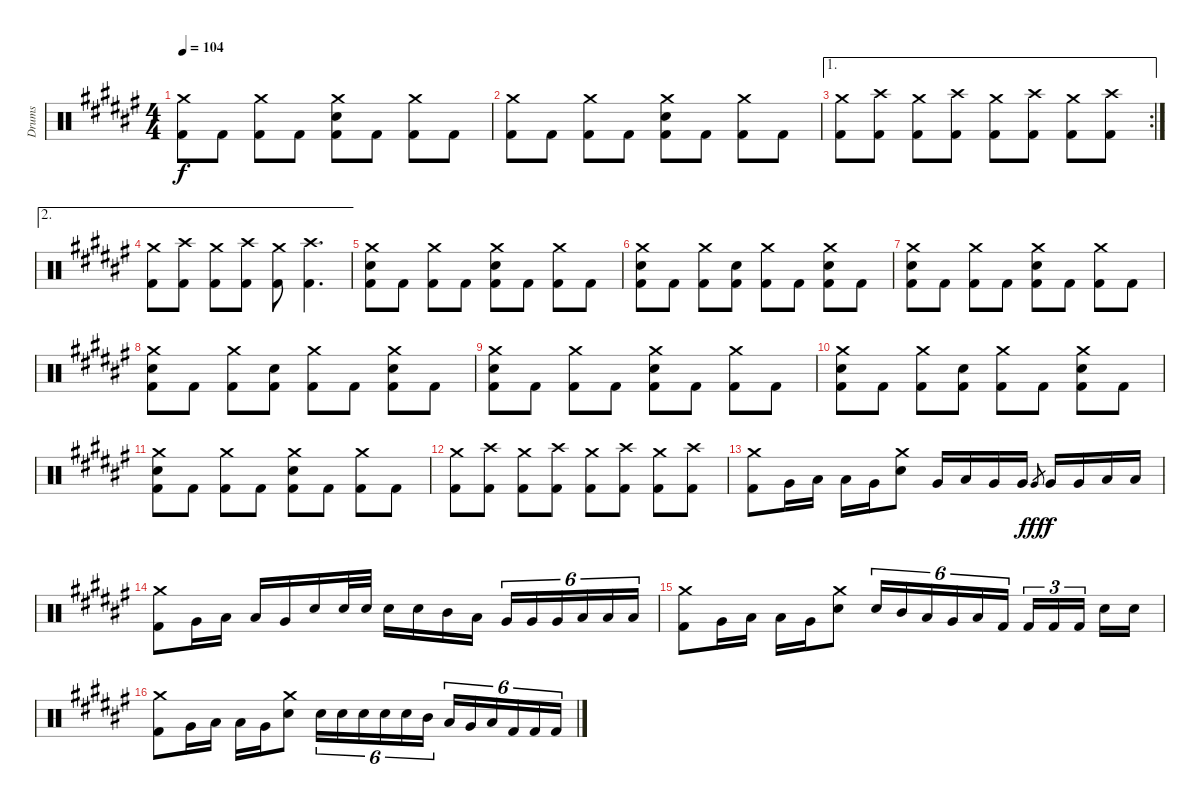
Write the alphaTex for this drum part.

\track ("Drums" "Drums") {instrument percussion}
\staff {score}
\articulation defaults
\ts (4 4)
\tempo 104
\clef neutral
\ks f#
("Crash medium (hit)" "Kick (hit) 2").8{dy f} "Kick (hit) 2".8 ("Crash medium (hit)" "Kick (hit) 2").8 "Kick (hit) 2".8 ("Crash medium (hit)" "Snare (hit) 2" "Kick (hit) 2").8 "Kick (hit) 2".8 ("Crash medium (hit)" "Kick (hit) 2").8 "Kick (hit) 2".8 |
("Crash medium (hit)" "Kick (hit) 2").8 "Kick (hit) 2".8 ("Crash medium (hit)" "Kick (hit) 2").8 "Kick (hit) 2".8 ("Crash medium (hit)" "Snare (hit) 2" "Kick (hit) 2").8 "Kick (hit) 2".8 ("Crash medium (hit)" "Kick (hit) 2").8 "Kick (hit) 2".8 |
\ae 1
\rc 2
("Crash medium (hit)" "Kick (hit) 2").8 ("Crash high (hit)" "Kick (hit) 2").8 ("Crash medium (hit)" "Kick (hit) 2").8 ("Crash high (hit)" "Kick (hit) 2").8 ("Crash medium (hit)" "Kick (hit) 2").8 ("Crash high (hit)" "Kick (hit) 2").8 ("Crash medium (hit)" "Kick (hit) 2").8 ("Crash high (hit)" "Kick (hit) 2").8 |
\ae 2
("Crash medium (hit)" "Kick (hit) 2").8 ("Crash high (hit)" "Kick (hit) 2").8 ("Crash medium (hit)" "Kick (hit) 2").8 ("Crash high (hit)" "Kick (hit) 2").8 ("Crash medium (hit)" "Kick (hit) 2").8 ("Crash high (hit)" "Kick (hit) 2").4{d} |
("Crash medium (hit)" "Snare (hit) 2" "Kick (hit) 2").8 "Kick (hit) 2".8 ("Crash medium (hit)" "Kick (hit) 2").8 "Kick (hit) 2".8 ("Crash medium (hit)" "Snare (hit) 2" "Kick (hit) 2").8 "Kick (hit) 2".8 ("Crash medium (hit)" "Kick (hit) 2").8 "Kick (hit) 2".8 |
("Crash medium (hit)" "Snare (hit) 2" "Kick (hit) 2").8 "Kick (hit) 2".8 ("Crash medium (hit)" "Kick (hit) 2").8 ("Snare (hit) 2" "Kick (hit) 2").8 ("Crash medium (hit)" "Kick (hit) 2").8 "Kick (hit) 2".8 ("Crash medium (hit)" "Snare (hit) 2" "Kick (hit) 2").8 "Kick (hit) 2".8 |
("Crash medium (hit)" "Snare (hit) 2" "Kick (hit) 2").8 "Kick (hit) 2".8 ("Crash medium (hit)" "Kick (hit) 2").8 "Kick (hit) 2".8 ("Crash medium (hit)" "Snare (hit) 2" "Kick (hit) 2").8 "Kick (hit) 2".8 ("Crash medium (hit)" "Kick (hit) 2").8 "Kick (hit) 2".8 |
("Crash medium (hit)" "Snare (hit) 2" "Kick (hit) 2").8 "Kick (hit) 2".8 ("Crash medium (hit)" "Kick (hit) 2").8 ("Snare (hit) 2" "Kick (hit) 2").8 ("Crash medium (hit)" "Kick (hit) 2").8 "Kick (hit) 2".8 ("Crash medium (hit)" "Snare (hit) 2" "Kick (hit) 2").8 "Kick (hit) 2".8 |
("Crash medium (hit)" "Snare (hit) 2" "Kick (hit) 2").8 "Kick (hit) 2".8 ("Crash medium (hit)" "Kick (hit) 2").8 "Kick (hit) 2".8 ("Crash medium (hit)" "Snare (hit) 2" "Kick (hit) 2").8 "Kick (hit) 2".8 ("Crash medium (hit)" "Kick (hit) 2").8 "Kick (hit) 2".8 |
("Crash medium (hit)" "Snare (hit) 2" "Kick (hit) 2").8 "Kick (hit) 2".8 ("Crash medium (hit)" "Kick (hit) 2").8 ("Snare (hit) 2" "Kick (hit) 2").8 ("Crash medium (hit)" "Kick (hit) 2").8 "Kick (hit) 2".8 ("Crash medium (hit)" "Snare (hit) 2" "Kick (hit) 2").8 "Kick (hit) 2".8 |
("Crash medium (hit)" "Snare (hit) 2" "Kick (hit) 2").8 "Kick (hit) 2".8 ("Crash medium (hit)" "Kick (hit) 2").8 "Kick (hit) 2".8 ("Crash medium (hit)" "Snare (hit) 2" "Kick (hit) 2").8 "Kick (hit) 2".8 ("Crash medium (hit)" "Kick (hit) 2").8 "Kick (hit) 2".8 |
("Crash medium (hit)" "Kick (hit) 2").8 ("Crash high (hit)" "Kick (hit) 2").8 ("Crash medium (hit)" "Kick (hit) 2").8 ("Crash high (hit)" "Kick (hit) 2").8 ("Crash medium (hit)" "Kick (hit) 2").8 ("Crash high (hit)" "Kick (hit) 2").8 ("Crash medium (hit)" "Kick (hit) 2").8 ("Crash high (hit)" "Kick (hit) 2").8 |
("Crash medium (hit)" "Kick (hit) 2").8 "Very Low Tom (hit)".16 "Low Tom (hit)".16 "Low Floor Tom (hit)".16 "Very Low Tom (hit)".16 ("Crash medium (hit)" "Snare (hit) 2").8 "Very Low Tom (hit)".16 "Low Floor Tom (hit)".16 "Very Low Tom (hit)".16 "Very Low Tom (hit)".16 "Very Low Tom (hit)".8{gr dy fff} "Very Low Tom (hit)".16{dy f} "Very Low Tom (hit)".16 "Low Floor Tom (hit)".16 "Low Floor Tom (hit)".16 |
("Crash medium (hit)" "Kick (hit) 2").8 "Very Low Tom (hit)".16 "Low Tom (hit)".16 "Low Floor Tom (hit)".16 "Very Low Tom (hit)".16 "Snare (hit) 2".16 "Snare (hit) 2".32 "Snare (hit) 2".32 "Snare (hit) 2".16 "Snare (hit) 2".16 "Mid Tom (hit)".16 "Low Tom (hit)".16 "Very Low Tom (hit)".16{tu (6 4)} "Very Low Tom (hit)".16{tu (6 4)} "Very Low Tom (hit)".16{tu (6 4)} "Low Floor Tom (hit)".16{tu (6 4)} "Low Floor Tom (hit)".16{tu (6 4)} "Low Floor Tom (hit)".16{tu (6 4)} |
("Crash medium (hit)" "Kick (hit) 2").8 "Very Low Tom (hit)".16 "Low Tom (hit)".16 "Low Floor Tom (hit)".16 "Very Low Tom (hit)".16 ("Crash medium (hit)" "Snare (hit) 2").8 "Snare (hit) 2".16{tu (6 4)} "Mid Tom (hit)".16{tu (6 4)} "Low Tom (hit)".16{tu (6 4)} "Very Low Tom (hit)".16{tu (6 4)} "Low Floor Tom (hit)".16{tu (6 4)} "Kick (hit) 2".16{tu (6 4)} "Kick (hit) 2".16{tu (3 2)} "Kick (hit) 2".16{tu (3 2)} "Kick (hit) 2".16{tu (3 2) beam splitsecondary} "Snare (hit) 2".16 "Snare (hit) 2".16 |
("Crash medium (hit)" "Kick (hit) 2").8 "Very Low Tom (hit)".16 "Low Tom (hit)".16 "Low Floor Tom (hit)".16 "Very Low Tom (hit)".16 ("Crash medium (hit)" "Snare (hit) 2").8 "Snare (hit) 2".16{tu (6 4)} "Snare (hit) 2".16{tu (6 4)} "Snare (hit) 2".16{tu (6 4)} "Snare (hit) 2".16{tu (6 4)} "Snare (hit) 2".16{tu (6 4)} "Mid Tom (hit)".16{tu (6 4)} "Low Tom (hit)".16{tu (6 4)} "Very Low Tom (hit)".16{tu (6 4)} "Low Floor Tom (hit)".16{tu (6 4)} "Kick (hit) 2".16{tu (6 4)} "Kick (hit) 2".16{tu (6 4)} "Kick (hit) 2".16{tu (6 4)}
